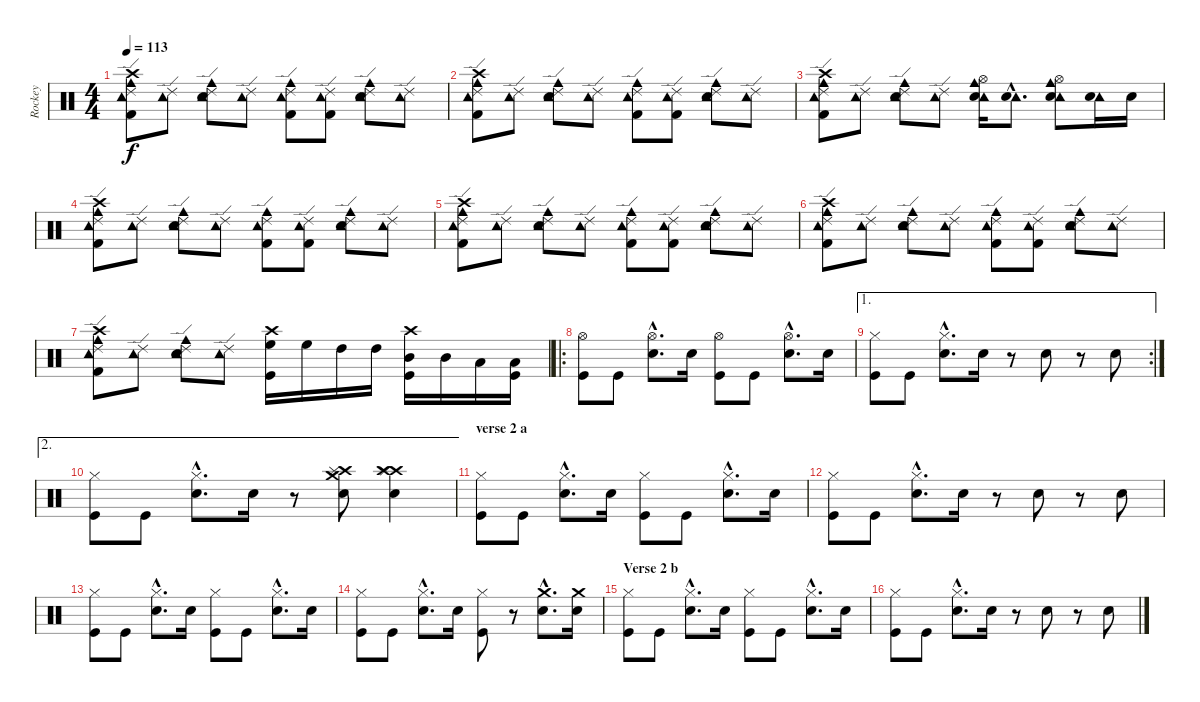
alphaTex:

\track ("Rockey" "Rockey") {instrument percussion}
\staff {score}
\articulation defaults
\ts (4 4)
\tempo 113
\clef neutral
\ks c
("Ride (edge) 2" "Crash high (hit)" "Cowbell medium (hit)" "Kick (hit) 2" "Tambourine (hit)").8{dy f} ("Ride (edge) 2" "Tambourine (hit)").8 ("Ride (edge) 2" "Cowbell medium (hit)" "Snare (hit) 2" "Tambourine (hit)").8 ("Ride (edge) 2" "Tambourine (hit)").8 ("Ride (edge) 2" "Cowbell medium (hit)" "Kick (hit) 2" "Tambourine (hit)").8 ("Ride (edge) 2" "Kick (hit) 2" "Tambourine (hit)").8 ("Ride (edge) 2" "Cowbell medium (hit)" "Snare (hit) 2" "Tambourine (hit)").8 ("Ride (edge) 2" "Tambourine (hit)").8 |
("Ride (edge) 2" "Crash high (hit)" "Cowbell medium (hit)" "Kick (hit) 2" "Tambourine (hit)").8 ("Ride (edge) 2" "Tambourine (hit)").8 ("Ride (edge) 2" "Cowbell medium (hit)" "Snare (hit) 2" "Tambourine (hit)").8 ("Ride (edge) 2" "Tambourine (hit)").8 ("Ride (edge) 2" "Cowbell medium (hit)" "Kick (hit) 2" "Tambourine (hit)").8 ("Ride (edge) 2" "Kick (hit) 2" "Tambourine (hit)").8 ("Ride (edge) 2" "Cowbell medium (hit)" "Snare (hit) 2" "Tambourine (hit)").8 ("Ride (edge) 2" "Tambourine (hit)").8 |
("Ride (edge) 2" "Crash high (hit)" "Cowbell medium (hit)" "Kick (hit) 2" "Tambourine (hit)").8 ("Ride (edge) 2" "Tambourine (hit)").8 ("Ride (edge) 2" "Cowbell medium (hit)" "Snare (hit) 2" "Tambourine (hit)").8 ("Ride (edge) 2" "Tambourine (hit)").8 ("Hi-Hat (open)" "Tambourine (hit)" "Cowbell medium (hit)" "Snare (hit) 2").16 ("Tambourine (hit)"{hac} "Snare (hit) 2"{hac}).8{d} ("Hi-Hat (open)" "Tambourine (hit)" "Cowbell medium (hit)" "Snare (hit) 2").8 ("Tambourine (hit)" "Snare (hit) 2").16 "Snare (hit) 2".16 |
("Ride (edge) 2" "Crash high (hit)" "Cowbell medium (hit)" "Kick (hit) 2" "Tambourine (hit)").8 ("Ride (edge) 2" "Tambourine (hit)").8 ("Ride (edge) 2" "Cowbell medium (hit)" "Snare (hit) 2" "Tambourine (hit)").8 ("Ride (edge) 2" "Tambourine (hit)").8 ("Ride (edge) 2" "Cowbell medium (hit)" "Kick (hit) 2" "Tambourine (hit)").8 ("Ride (edge) 2" "Kick (hit) 2" "Tambourine (hit)").8 ("Ride (edge) 2" "Cowbell medium (hit)" "Snare (hit) 2" "Tambourine (hit)").8 ("Ride (edge) 2" "Tambourine (hit)").8 |
("Ride (edge) 2" "Crash high (hit)" "Cowbell medium (hit)" "Kick (hit) 2" "Tambourine (hit)").8 ("Ride (edge) 2" "Tambourine (hit)").8 ("Ride (edge) 2" "Cowbell medium (hit)" "Snare (hit) 2" "Tambourine (hit)").8 ("Ride (edge) 2" "Tambourine (hit)").8 ("Ride (edge) 2" "Cowbell medium (hit)" "Kick (hit) 2" "Tambourine (hit)").8 ("Ride (edge) 2" "Kick (hit) 2" "Tambourine (hit)").8 ("Ride (edge) 2" "Cowbell medium (hit)" "Snare (hit) 2" "Tambourine (hit)").8 ("Ride (edge) 2" "Tambourine (hit)").8 |
("Ride (edge) 2" "Crash high (hit)" "Cowbell medium (hit)" "Kick (hit) 2" "Tambourine (hit)").8 ("Ride (edge) 2" "Tambourine (hit)").8 ("Ride (edge) 2" "Cowbell medium (hit)" "Snare (hit) 2" "Tambourine (hit)").8 ("Ride (edge) 2" "Tambourine (hit)").8 ("Ride (edge) 2" "Cowbell medium (hit)" "Kick (hit) 2" "Tambourine (hit)").8 ("Ride (edge) 2" "Kick (hit) 2" "Tambourine (hit)").8 ("Ride (edge) 2" "Cowbell medium (hit)" "Snare (hit) 2" "Tambourine (hit)").8 ("Ride (edge) 2" "Tambourine (hit)").8 |
("Ride (edge) 2" "Crash high (hit)" "Cowbell medium (hit)" "Kick (hit) 2" "Tambourine (hit)").8 ("Ride (edge) 2" "Tambourine (hit)").8 ("Ride (edge) 2" "Cowbell medium (hit)" "Snare (hit) 2" "Tambourine (hit)").8 ("Ride (edge) 2" "Tambourine (hit)").8 ("Crash high (hit)" "High Floor Tom (hit)" "Kick (hit)").16 "High Floor Tom (hit)".16 "High Tom (hit)".16 "High Tom (hit)".16 ("Crash high (hit)" "Mid Tom (hit)" "Kick (hit)").16 "Mid Tom (hit)".16 "Low Tom (hit)".16 ("Low Tom (hit)" "Kick (hit)").16 |
\ro
("Hi-Hat (open)" "Kick (hit)").8 "Kick (hit)".8 ("Hi-Hat (open)"{hac} "Snare (hit) 2"{hac}).8{d} "Snare (hit) 2".16 ("Hi-Hat (open)" "Kick (hit)").8 "Kick (hit)".8 ("Hi-Hat (open)"{hac} "Snare (hit) 2"{hac}).8{d} "Snare (hit) 2".16 |
\ae 1
\rc 2
("Hi-Hat (closed)" "Kick (hit)").8 "Kick (hit)".8 ("Hi-Hat (closed)"{hac} "Snare (hit) 2"{hac}).8{d} "Snare (hit) 2".16 r.8 "Snare (hit) 2".8 r.8 "Snare (hit) 2".8 |
\ae 2
("Hi-Hat (closed)" "Kick (hit)").8 "Kick (hit)".8 ("Hi-Hat (closed)"{hac} "Snare (hit) 2"{hac}).8{d} "Snare (hit) 2".16 r.8 ("Crash high (hit)" "Splash (hit)" "Crash medium (hit)" "Snare (hit) 2").8 ("Crash high (hit)" "Splash (hit)" "Crash high (hit)" "Snare (hit) 2").4 |
\section ("" "verse 2 a")
("Hi-Hat (closed)" "Kick (hit)").8 "Kick (hit)".8 ("Hi-Hat (closed)"{hac} "Snare (hit) 2"{hac}).8{d} "Snare (hit) 2".16 ("Hi-Hat (closed)" "Kick (hit)").8 "Kick (hit)".8 ("Hi-Hat (closed)"{hac} "Snare (hit) 2"{hac}).8{d} "Snare (hit) 2".16 |
("Hi-Hat (closed)" "Kick (hit)").8 "Kick (hit)".8 ("Hi-Hat (closed)"{hac} "Snare (hit) 2"{hac}).8{d} "Snare (hit) 2".16 r.8 "Snare (hit) 2".8 r.8 "Snare (hit) 2".8 |
("Hi-Hat (closed)" "Kick (hit)").8 "Kick (hit)".8 ("Hi-Hat (closed)"{hac} "Snare (hit) 2"{hac}).8{d} "Snare (hit) 2".16 ("Hi-Hat (closed)" "Kick (hit)").8 "Kick (hit)".8 ("Hi-Hat (closed)"{hac} "Snare (hit) 2"{hac}).8{d} "Snare (hit) 2".16 |
("Hi-Hat (closed)" "Kick (hit)").8 "Kick (hit)".8 ("Hi-Hat (closed)"{hac} "Snare (hit) 2"{hac}).8{d} "Snare (hit) 2".16 ("Hi-Hat (closed)" "Kick (hit)").8 r.8 ("Crash medium (hit)"{hac} "Snare (hit) 2"{hac}).8{d} ("Crash medium (hit)" "Snare (hit) 2").16 |
\section ("" "Verse 2 b")
("Hi-Hat (closed)" "Kick (hit)").8 "Kick (hit)".8 ("Hi-Hat (closed)"{hac} "Snare (hit) 2"{hac}).8{d} "Snare (hit) 2".16 ("Hi-Hat (closed)" "Kick (hit)").8 "Kick (hit)".8 ("Hi-Hat (closed)"{hac} "Snare (hit) 2"{hac}).8{d} "Snare (hit) 2".16 |
("Hi-Hat (closed)" "Kick (hit)").8 "Kick (hit)".8 ("Hi-Hat (closed)"{hac} "Snare (hit) 2"{hac}).8{d} "Snare (hit) 2".16 r.8 "Snare (hit) 2".8 r.8 "Snare (hit) 2".8
